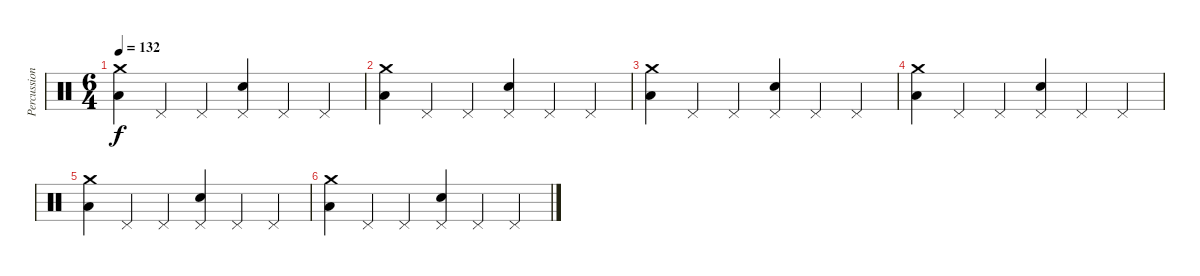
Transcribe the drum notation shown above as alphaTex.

\track ("Percussion" "Percussion") {instrument percussion}
\staff {score}
\articulation defaults
\ts (6 4)
\tempo 132
\clef neutral
\ks c
("Crash medium (hit)" "Low Floor Tom (hit)").4{dy f} "Pedal Hi-Hat (hit)".4 "Pedal Hi-Hat (hit)".4 ("Pedal Hi-Hat (hit)" "Snare (hit) 2").4 "Pedal Hi-Hat (hit)".4 "Pedal Hi-Hat (hit)".4 |
("Crash medium (hit)" "Low Floor Tom (hit)").4 "Pedal Hi-Hat (hit)".4 "Pedal Hi-Hat (hit)".4 ("Pedal Hi-Hat (hit)" "Snare (hit) 2").4 "Pedal Hi-Hat (hit)".4 "Pedal Hi-Hat (hit)".4 |
("Crash medium (hit)" "Low Floor Tom (hit)").4 "Pedal Hi-Hat (hit)".4 "Pedal Hi-Hat (hit)".4 ("Pedal Hi-Hat (hit)" "Snare (hit) 2").4 "Pedal Hi-Hat (hit)".4 "Pedal Hi-Hat (hit)".4 |
("Crash medium (hit)" "Low Floor Tom (hit)").4 "Pedal Hi-Hat (hit)".4 "Pedal Hi-Hat (hit)".4 ("Pedal Hi-Hat (hit)" "Snare (hit) 2").4 "Pedal Hi-Hat (hit)".4 "Pedal Hi-Hat (hit)".4 |
("Crash medium (hit)" "Low Floor Tom (hit)").4 "Pedal Hi-Hat (hit)".4 "Pedal Hi-Hat (hit)".4 ("Pedal Hi-Hat (hit)" "Snare (hit) 2").4 "Pedal Hi-Hat (hit)".4 "Pedal Hi-Hat (hit)".4 |
("Crash medium (hit)" "Low Floor Tom (hit)").4 "Pedal Hi-Hat (hit)".4 "Pedal Hi-Hat (hit)".4 ("Pedal Hi-Hat (hit)" "Snare (hit) 2").4 "Pedal Hi-Hat (hit)".4 "Pedal Hi-Hat (hit)".4
